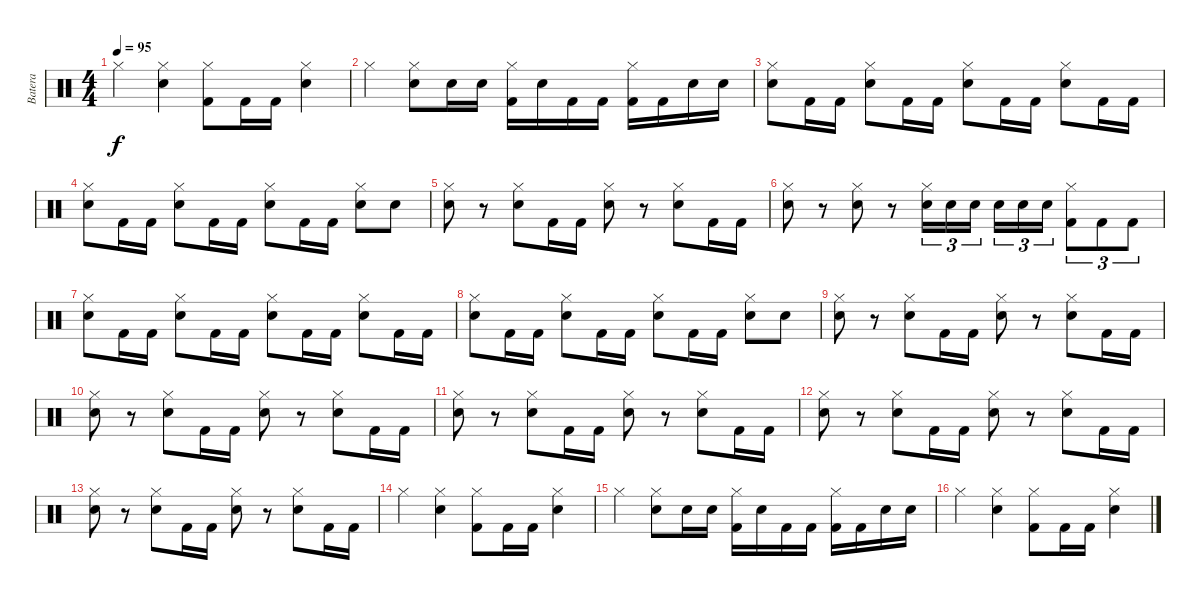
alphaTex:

\track ("Batera" "Batera") {instrument percussion}
\staff {score}
\articulation defaults
\ts (4 4)
\tempo 95
\clef neutral
\ks c "Hi-Hat (closed)".4{dy f}
("Hi-Hat (closed)" "Snare (hit) 2").4 ("Hi-Hat (closed)" "Kick (hit) 2").8 "Kick (hit) 2".16 "Kick (hit) 2".16 ("Hi-Hat (closed)" "Snare (hit) 2").4 |
"Hi-Hat (closed)".4 ("Hi-Hat (closed)" "Snare (hit) 2").8 "Snare (hit) 2".16 "Snare (hit) 2".16 ("Hi-Hat (closed)" "Kick (hit) 2").16 "Snare (hit) 2".16 "Kick (hit) 2".16 "Kick (hit) 2".16 ("Hi-Hat (closed)" "Kick (hit) 2").16 "Kick (hit) 2".16 "Snare (hit) 2".16 "Snare (hit) 2".16 |
("Hi-Hat (closed)" "Snare (hit) 2").8 "Kick (hit) 2".16 "Kick (hit) 2".16 ("Hi-Hat (closed)" "Snare (hit) 2").8 "Kick (hit) 2".16 "Kick (hit) 2".16 ("Hi-Hat (closed)" "Snare (hit) 2").8 "Kick (hit) 2".16 "Kick (hit) 2".16 ("Hi-Hat (closed)" "Snare (hit) 2").8 "Kick (hit) 2".16 "Kick (hit) 2".16 |
("Hi-Hat (closed)" "Snare (hit) 2").8 "Kick (hit) 2".16 "Kick (hit) 2".16 ("Hi-Hat (closed)" "Snare (hit) 2").8 "Kick (hit) 2".16 "Kick (hit) 2".16 ("Hi-Hat (closed)" "Snare (hit) 2").8 "Kick (hit) 2".16 "Kick (hit) 2".16 ("Hi-Hat (closed)" "Snare (hit) 2").8 "Snare (hit) 2".8 |
("Hi-Hat (closed)" "Snare (hit) 2").8 r.8 ("Hi-Hat (closed)" "Snare (hit) 2").8 "Kick (hit) 2".16 "Kick (hit) 2".16 ("Hi-Hat (closed)" "Snare (hit) 2").8 r.8 ("Hi-Hat (closed)" "Snare (hit) 2").8 "Kick (hit) 2".16 "Kick (hit) 2".16 |
("Hi-Hat (closed)" "Snare (hit) 2").8 r.8 ("Hi-Hat (closed)" "Snare (hit) 2").8 r.8 ("Hi-Hat (closed)" "Snare (hit) 2").16{tu (3 2)} "Snare (hit) 2".16{tu (3 2)} "Snare (hit) 2".16{tu (3 2)} "Snare (hit) 2".16{tu (3 2)} "Snare (hit) 2".16{tu (3 2)} "Snare (hit) 2".16{tu (3 2)} ("Hi-Hat (closed)" "Kick (hit) 2").8{tu (3 2)} "Kick (hit) 2".8{tu (3 2)} "Kick (hit) 2".8{tu (3 2)} |
("Hi-Hat (closed)" "Snare (hit) 2").8 "Kick (hit) 2".16 "Kick (hit) 2".16 ("Hi-Hat (closed)" "Snare (hit) 2").8 "Kick (hit) 2".16 "Kick (hit) 2".16 ("Hi-Hat (closed)" "Snare (hit) 2").8 "Kick (hit) 2".16 "Kick (hit) 2".16 ("Hi-Hat (closed)" "Snare (hit) 2").8 "Kick (hit) 2".16 "Kick (hit) 2".16 |
("Hi-Hat (closed)" "Snare (hit) 2").8 "Kick (hit) 2".16 "Kick (hit) 2".16 ("Hi-Hat (closed)" "Snare (hit) 2").8 "Kick (hit) 2".16 "Kick (hit) 2".16 ("Hi-Hat (closed)" "Snare (hit) 2").8 "Kick (hit) 2".16 "Kick (hit) 2".16 ("Hi-Hat (closed)" "Snare (hit) 2").8 "Snare (hit) 2".8 |
("Hi-Hat (closed)" "Snare (hit) 2").8 r.8 ("Hi-Hat (closed)" "Snare (hit) 2").8 "Kick (hit) 2".16 "Kick (hit) 2".16 ("Hi-Hat (closed)" "Snare (hit) 2").8 r.8 ("Hi-Hat (closed)" "Snare (hit) 2").8 "Kick (hit) 2".16 "Kick (hit) 2".16 |
("Hi-Hat (closed)" "Snare (hit) 2").8 r.8 ("Hi-Hat (closed)" "Snare (hit) 2").8 "Kick (hit) 2".16 "Kick (hit) 2".16 ("Hi-Hat (closed)" "Snare (hit) 2").8 r.8 ("Hi-Hat (closed)" "Snare (hit) 2").8 "Kick (hit) 2".16 "Kick (hit) 2".16 |
("Hi-Hat (closed)" "Snare (hit) 2").8 r.8 ("Hi-Hat (closed)" "Snare (hit) 2").8 "Kick (hit) 2".16 "Kick (hit) 2".16 ("Hi-Hat (closed)" "Snare (hit) 2").8 r.8 ("Hi-Hat (closed)" "Snare (hit) 2").8 "Kick (hit) 2".16 "Kick (hit) 2".16 |
("Hi-Hat (closed)" "Snare (hit) 2").8 r.8 ("Hi-Hat (closed)" "Snare (hit) 2").8 "Kick (hit) 2".16 "Kick (hit) 2".16 ("Hi-Hat (closed)" "Snare (hit) 2").8 r.8 ("Hi-Hat (closed)" "Snare (hit) 2").8 "Kick (hit) 2".16 "Kick (hit) 2".16 |
("Hi-Hat (closed)" "Snare (hit) 2").8 r.8 ("Hi-Hat (closed)" "Snare (hit) 2").8 "Kick (hit) 2".16 "Kick (hit) 2".16 ("Hi-Hat (closed)" "Snare (hit) 2").8 r.8 ("Hi-Hat (closed)" "Snare (hit) 2").8 "Kick (hit) 2".16 "Kick (hit) 2".16 |
"Hi-Hat (closed)".4 ("Hi-Hat (closed)" "Snare (hit) 2").4 ("Hi-Hat (closed)" "Kick (hit) 2").8 "Kick (hit) 2".16 "Kick (hit) 2".16 ("Hi-Hat (closed)" "Snare (hit) 2").4 |
"Hi-Hat (closed)".4 ("Hi-Hat (closed)" "Snare (hit) 2").8 "Snare (hit) 2".16 "Snare (hit) 2".16 ("Hi-Hat (closed)" "Kick (hit) 2").16 "Snare (hit) 2".16 "Kick (hit) 2".16 "Kick (hit) 2".16 ("Hi-Hat (closed)" "Kick (hit) 2").16 "Kick (hit) 2".16 "Snare (hit) 2".16 "Snare (hit) 2".16 |
"Hi-Hat (closed)".4 ("Hi-Hat (closed)" "Snare (hit) 2").4 ("Hi-Hat (closed)" "Kick (hit) 2").8 "Kick (hit) 2".16 "Kick (hit) 2".16 ("Hi-Hat (closed)" "Snare (hit) 2").4
